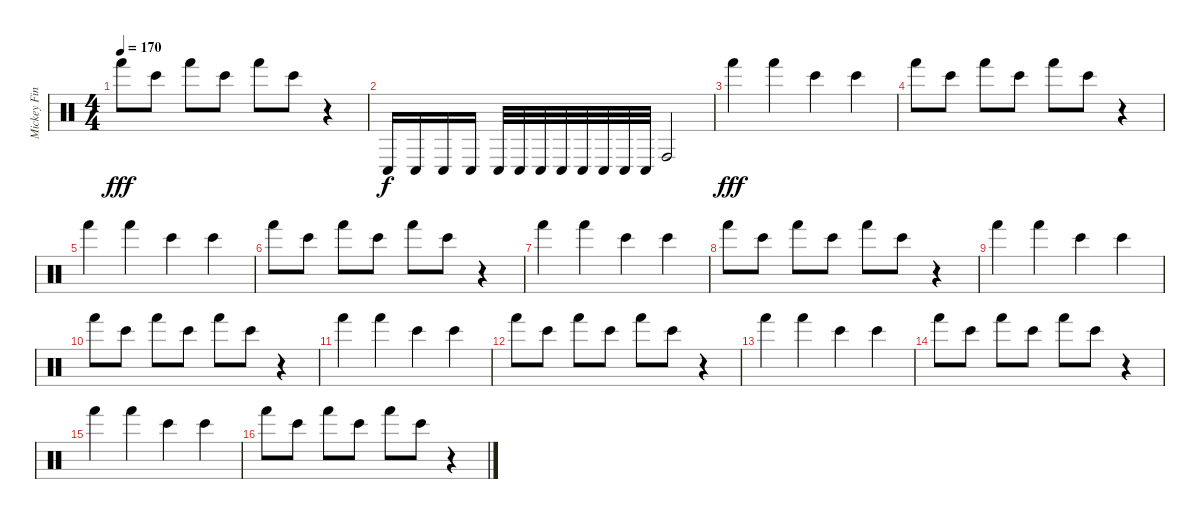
\track ("Mickey Finn" "Mickey Fin") {instrument percussion}
\staff {score}
\articulation defaults
\ts (4 4)
\tempo 170
\clef neutral
\ks c "Hand (hit)".8{dy fff} "Bongo High (hit)".8 "Hand (hit)".8 "Bongo High (hit)".8 "Hand (hit)".8 "Bongo High (hit)".8
r.4 |
"Conga low (hit)".16{dy f} "Conga low (hit)".16 "Conga low (hit)".16 "Conga low (hit)".16 "Conga low (hit)".32 "Conga low (hit)".32 "Conga low (hit)".32 "Conga low (hit)".32 "Conga low (hit)".32 "Conga low (hit)".32 "Conga low (hit)".32 "Conga low (hit)".32 "Conga high (hit)".2 |
"Hand (hit)".4{dy fff} "Hand (hit)".4 "Bongo High (hit)".4 "Bongo High (hit)".4 |
"Hand (hit)".8 "Bongo High (hit)".8 "Hand (hit)".8 "Bongo High (hit)".8 "Hand (hit)".8 "Bongo High (hit)".8 r.4 |
"Hand (hit)".4 "Hand (hit)".4 "Bongo High (hit)".4 "Bongo High (hit)".4 |
"Hand (hit)".8 "Bongo High (hit)".8 "Hand (hit)".8 "Bongo High (hit)".8 "Hand (hit)".8 "Bongo High (hit)".8 r.4 |
"Hand (hit)".4 "Hand (hit)".4 "Bongo High (hit)".4 "Bongo High (hit)".4 |
"Hand (hit)".8 "Bongo High (hit)".8 "Hand (hit)".8 "Bongo High (hit)".8 "Hand (hit)".8 "Bongo High (hit)".8 r.4 |
"Hand (hit)".4 "Hand (hit)".4 "Bongo High (hit)".4 "Bongo High (hit)".4 |
"Hand (hit)".8 "Bongo High (hit)".8 "Hand (hit)".8 "Bongo High (hit)".8 "Hand (hit)".8 "Bongo High (hit)".8 r.4 |
"Hand (hit)".4 "Hand (hit)".4 "Bongo High (hit)".4 "Bongo High (hit)".4 |
"Hand (hit)".8 "Bongo High (hit)".8 "Hand (hit)".8 "Bongo High (hit)".8 "Hand (hit)".8 "Bongo High (hit)".8 r.4 |
"Hand (hit)".4 "Hand (hit)".4 "Bongo High (hit)".4 "Bongo High (hit)".4 |
"Hand (hit)".8 "Bongo High (hit)".8 "Hand (hit)".8 "Bongo High (hit)".8 "Hand (hit)".8 "Bongo High (hit)".8 r.4 |
"Hand (hit)".4 "Hand (hit)".4 "Bongo High (hit)".4 "Bongo High (hit)".4 |
"Hand (hit)".8 "Bongo High (hit)".8 "Hand (hit)".8 "Bongo High (hit)".8 "Hand (hit)".8 "Bongo High (hit)".8 r.4
